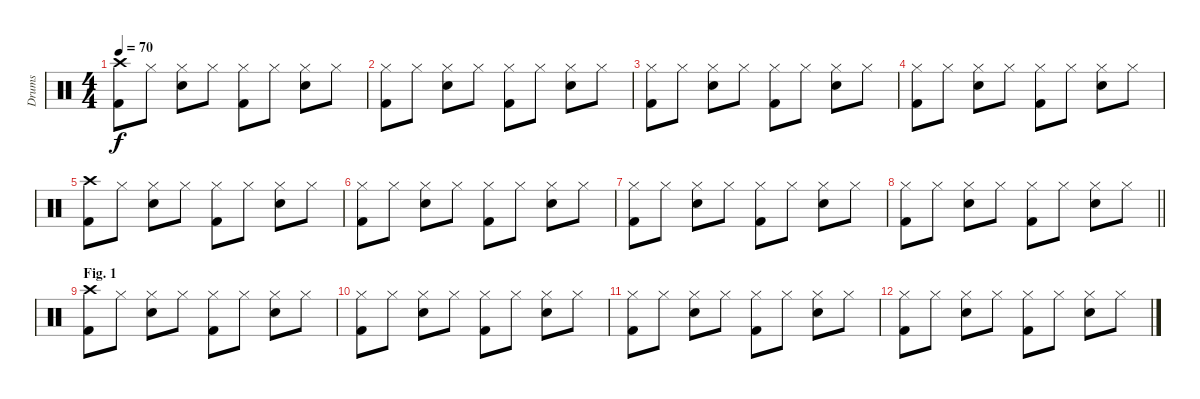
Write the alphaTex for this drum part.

\track ("Drums" "Drums") {instrument percussion}
\staff {score}
\articulation defaults
\ts (4 4)
\tempo 70
\clef neutral
\ks c
("Crash high (hit)" "Kick (hit) 2").8{dy f} "Hi-Hat (closed)".8 ("Hi-Hat (closed)" "Snare (hit) 2").8 "Hi-Hat (closed)".8 ("Hi-Hat (closed)" "Kick (hit) 2").8 "Hi-Hat (closed)".8 ("Hi-Hat (closed)" "Snare (hit) 2").8 "Hi-Hat (closed)".8 |
("Hi-Hat (closed)" "Kick (hit) 2").8 "Hi-Hat (closed)".8 ("Hi-Hat (closed)" "Snare (hit) 2").8 "Hi-Hat (closed)".8 ("Hi-Hat (closed)" "Kick (hit) 2").8 "Hi-Hat (closed)".8 ("Hi-Hat (closed)" "Snare (hit) 2").8 "Hi-Hat (closed)".8 |
("Hi-Hat (closed)" "Kick (hit) 2").8 "Hi-Hat (closed)".8 ("Hi-Hat (closed)" "Snare (hit) 2").8 "Hi-Hat (closed)".8 ("Hi-Hat (closed)" "Kick (hit) 2").8 "Hi-Hat (closed)".8 ("Hi-Hat (closed)" "Snare (hit) 2").8 "Hi-Hat (closed)".8 |
("Hi-Hat (closed)" "Kick (hit) 2").8 "Hi-Hat (closed)".8 ("Hi-Hat (closed)" "Snare (hit) 2").8 "Hi-Hat (closed)".8 ("Hi-Hat (closed)" "Kick (hit) 2").8 "Hi-Hat (closed)".8 ("Hi-Hat (closed)" "Snare (hit) 2").8 "Hi-Hat (closed)".8 |
("Crash high (hit)" "Kick (hit) 2").8 "Hi-Hat (closed)".8 ("Hi-Hat (closed)" "Snare (hit) 2").8 "Hi-Hat (closed)".8 ("Hi-Hat (closed)" "Kick (hit) 2").8 "Hi-Hat (closed)".8 ("Hi-Hat (closed)" "Snare (hit) 2").8 "Hi-Hat (closed)".8 |
("Hi-Hat (closed)" "Kick (hit) 2").8 "Hi-Hat (closed)".8 ("Hi-Hat (closed)" "Snare (hit) 2").8 "Hi-Hat (closed)".8 ("Hi-Hat (closed)" "Kick (hit) 2").8 "Hi-Hat (closed)".8 ("Hi-Hat (closed)" "Snare (hit) 2").8 "Hi-Hat (closed)".8 |
("Hi-Hat (closed)" "Kick (hit) 2").8 "Hi-Hat (closed)".8 ("Hi-Hat (closed)" "Snare (hit) 2").8 "Hi-Hat (closed)".8 ("Hi-Hat (closed)" "Kick (hit) 2").8 "Hi-Hat (closed)".8 ("Hi-Hat (closed)" "Snare (hit) 2").8 "Hi-Hat (closed)".8 |
\barLineRight lightlight
("Hi-Hat (closed)" "Kick (hit) 2").8 "Hi-Hat (closed)".8 ("Hi-Hat (closed)" "Snare (hit) 2").8 "Hi-Hat (closed)".8 ("Hi-Hat (closed)" "Kick (hit) 2").8 "Hi-Hat (closed)".8 ("Hi-Hat (closed)" "Snare (hit) 2").8 "Hi-Hat (closed)".8 |
\section ("" "Fig. 1")
("Crash high (hit)" "Kick (hit) 2").8 "Hi-Hat (closed)".8 ("Hi-Hat (closed)" "Snare (hit) 2").8 "Hi-Hat (closed)".8 ("Hi-Hat (closed)" "Kick (hit) 2").8 "Hi-Hat (closed)".8 ("Hi-Hat (closed)" "Snare (hit) 2").8 "Hi-Hat (closed)".8 |
("Hi-Hat (closed)" "Kick (hit) 2").8 "Hi-Hat (closed)".8 ("Hi-Hat (closed)" "Snare (hit) 2").8 "Hi-Hat (closed)".8 ("Hi-Hat (closed)" "Kick (hit) 2").8 "Hi-Hat (closed)".8 ("Hi-Hat (closed)" "Snare (hit) 2").8 "Hi-Hat (closed)".8 |
("Hi-Hat (closed)" "Kick (hit) 2").8 "Hi-Hat (closed)".8 ("Hi-Hat (closed)" "Snare (hit) 2").8 "Hi-Hat (closed)".8 ("Hi-Hat (closed)" "Kick (hit) 2").8 "Hi-Hat (closed)".8 ("Hi-Hat (closed)" "Snare (hit) 2").8 "Hi-Hat (closed)".8 |
("Hi-Hat (closed)" "Kick (hit) 2").8 "Hi-Hat (closed)".8 ("Hi-Hat (closed)" "Snare (hit) 2").8 "Hi-Hat (closed)".8 ("Hi-Hat (closed)" "Kick (hit) 2").8 "Hi-Hat (closed)".8 ("Hi-Hat (closed)" "Snare (hit) 2").8 "Hi-Hat (closed)".8
